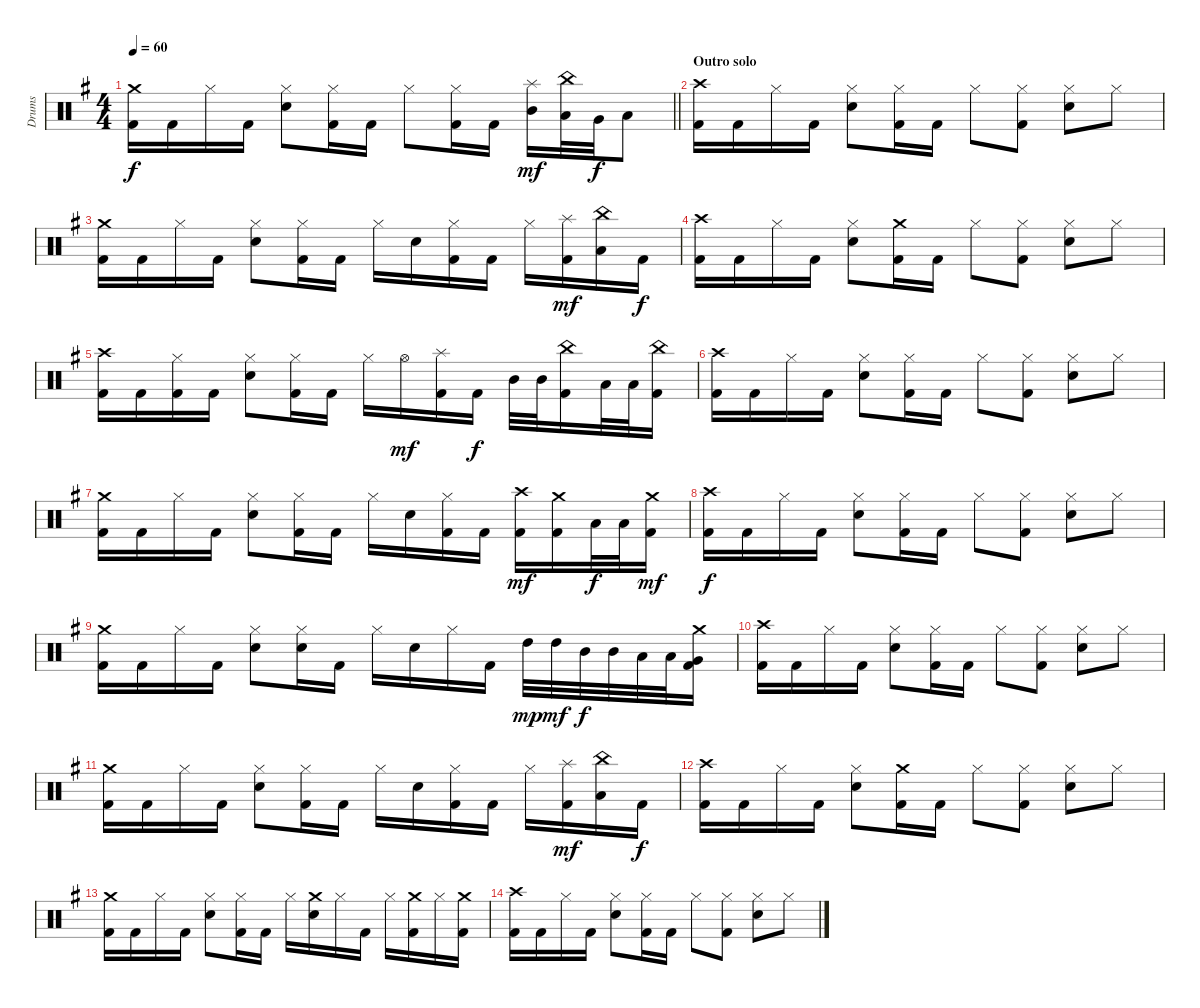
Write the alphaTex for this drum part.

\track ("Drums" "Drums") {instrument percussion}
\staff {score}
\articulation defaults
\ts (4 4)
\tempo 60
\clef neutral
\barLineRight lightlight
\ks eminor
("Crash medium (hit)" "Kick (hit) 2").16{dy f} "Kick (hit) 2".16 "Hi-Hat (closed)".16 "Kick (hit) 2".16 ("Hi-Hat (closed)" "Snare (hit) 2").8 ("Hi-Hat (closed)" "Kick (hit) 2").16 "Kick (hit) 2".16 "Hi-Hat (closed)".8 ("Hi-Hat (closed)" "Kick (hit) 2").16 "Kick (hit) 2".16 ("Splash (hit)" "Mid Tom (hit)").16{dy mf} ("China (hit)" "Low Tom (hit)").32 "Very Low Tom (hit)".32{dy f} "Low Floor Tom (hit)".8 |
\section ("" "Outro solo")
("Crash high (hit)" "Kick (hit) 2").16 "Kick (hit) 2".16 "Hi-Hat (closed)".16 "Kick (hit) 2".16 ("Hi-Hat (closed)" "Snare (hit) 2").8 ("Hi-Hat (closed)" "Kick (hit) 2").16 "Kick (hit) 2".16 "Hi-Hat (closed)".8 ("Hi-Hat (closed)" "Kick (hit) 2").8 ("Hi-Hat (closed)" "Snare (hit) 2").8 "Hi-Hat (closed)".8 |
("Crash medium (hit)" "Kick (hit) 2").16 "Kick (hit) 2".16 "Hi-Hat (closed)".16 "Kick (hit) 2".16 ("Hi-Hat (closed)" "Snare (hit) 2").8 ("Hi-Hat (closed)" "Kick (hit) 2").16 "Kick (hit) 2".16 "Hi-Hat (closed)".16 "Snare (hit) 2".16 ("Hi-Hat (closed)" "Kick (hit) 2").16 "Kick (hit) 2".16 "Hi-Hat (closed)".16 ("Splash (hit)" "Kick (hit) 2").16{dy mf} ("China (hit)" "Low Tom (hit)").16 "Kick (hit) 2".16{dy f} |
("Crash high (hit)" "Kick (hit) 2").16 "Kick (hit) 2".16 "Hi-Hat (closed)".16 "Kick (hit) 2".16 ("Hi-Hat (closed)" "Snare (hit) 2").8 ("Crash medium (hit)" "Kick (hit) 2").16 "Kick (hit) 2".16 "Hi-Hat (closed)".8 ("Hi-Hat (closed)" "Kick (hit) 2").8 ("Hi-Hat (closed)" "Snare (hit) 2").8 "Hi-Hat (closed)".8 |
("Crash high (hit)" "Kick (hit) 2").16 "Kick (hit) 2".16 ("Hi-Hat (closed)" "Kick (hit) 2").16 "Kick (hit) 2".16 ("Hi-Hat (closed)" "Snare (hit) 2").8 ("Hi-Hat (closed)" "Kick (hit) 2").16 "Kick (hit) 2".16 "Hi-Hat (closed)".16 "Hi-Hat (open)".16{dy mf} ("Splash (hit)" "Kick (hit) 2").16 "Kick (hit) 2".16{dy f} "Mid Tom (hit)".32 "Mid Tom (hit)".32 ("China (hit)" "Kick (hit) 2").16 "Low Tom (hit)".32 "Low Tom (hit)".32 ("China (hit)" "Kick (hit) 2").16 |
("Crash high (hit)" "Kick (hit) 2").16 "Kick (hit) 2".16 "Hi-Hat (closed)".16 "Kick (hit) 2".16 ("Hi-Hat (closed)" "Snare (hit) 2").8 ("Hi-Hat (closed)" "Kick (hit) 2").16 "Kick (hit) 2".16 "Hi-Hat (closed)".8 ("Hi-Hat (closed)" "Kick (hit) 2").8 ("Hi-Hat (closed)" "Snare (hit) 2").8 "Hi-Hat (closed)".8 |
("Crash medium (hit)" "Kick (hit) 2").16 "Kick (hit) 2".16 "Hi-Hat (closed)".16 "Kick (hit) 2".16 ("Hi-Hat (closed)" "Snare (hit) 2").8 ("Hi-Hat (closed)" "Kick (hit) 2").16 "Kick (hit) 2".16 "Hi-Hat (closed)".16 "Snare (hit) 2".16 ("Hi-Hat (closed)" "Kick (hit) 2").16 "Kick (hit) 2".16 ("Crash high (hit)" "Kick (hit) 2").16{dy mf} ("Crash medium (hit)" "Kick (hit) 2").16 "Low Tom (hit)".32{dy f} "Low Tom (hit)".32 ("Crash medium (hit)" "Kick (hit) 2").16{dy mf} |
("Crash high (hit)" "Kick (hit) 2").16{dy f} "Kick (hit) 2".16 "Hi-Hat (closed)".16 "Kick (hit) 2".16 ("Hi-Hat (closed)" "Snare (hit) 2").8 ("Hi-Hat (closed)" "Kick (hit) 2").16 "Kick (hit) 2".16 "Hi-Hat (closed)".8 ("Hi-Hat (closed)" "Kick (hit) 2").8 ("Hi-Hat (closed)" "Snare (hit) 2").8 "Hi-Hat (closed)".8 |
("Crash medium (hit)" "Kick (hit) 2").16 "Kick (hit) 2".16 "Hi-Hat (closed)".16 "Kick (hit) 2".16 ("Hi-Hat (closed)" "Snare (hit) 2").8 ("Hi-Hat (closed)" "Snare (hit) 2").16 "Kick (hit) 2".16 "Hi-Hat (closed)".16 "Snare (hit) 2".16 "Hi-Hat (closed)".16 "Kick (hit) 2".16 "High Tom (hit)".32{dy mp} "High Tom (hit)".32{dy mf} "Mid Tom (hit)".32{dy f} "Mid Tom (hit)".32 "Low Tom (hit)".32 "Low Tom (hit)".32 ("Crash medium (hit)" "Very Low Tom (hit)" "Kick (hit) 2").16 |
("Crash high (hit)" "Kick (hit) 2").16 "Kick (hit) 2".16 "Hi-Hat (closed)".16 "Kick (hit) 2".16 ("Hi-Hat (closed)" "Snare (hit) 2").8 ("Hi-Hat (closed)" "Kick (hit) 2").16 "Kick (hit) 2".16 "Hi-Hat (closed)".8 ("Hi-Hat (closed)" "Kick (hit) 2").8 ("Hi-Hat (closed)" "Snare (hit) 2").8 "Hi-Hat (closed)".8 |
("Crash medium (hit)" "Kick (hit) 2").16 "Kick (hit) 2".16 "Hi-Hat (closed)".16 "Kick (hit) 2".16 ("Hi-Hat (closed)" "Snare (hit) 2").8 ("Hi-Hat (closed)" "Kick (hit) 2").16 "Kick (hit) 2".16 "Hi-Hat (closed)".16 "Snare (hit) 2".16 ("Hi-Hat (closed)" "Kick (hit) 2").16 "Kick (hit) 2".16 "Hi-Hat (closed)".16 ("Splash (hit)" "Kick (hit) 2").16{dy mf} ("China (hit)" "Low Tom (hit)").16 "Kick (hit) 2".16{dy f} |
("Crash high (hit)" "Kick (hit) 2").16 "Kick (hit) 2".16 "Hi-Hat (closed)".16 "Kick (hit) 2".16 ("Hi-Hat (closed)" "Snare (hit) 2").8 ("Crash medium (hit)" "Kick (hit) 2").16 "Kick (hit) 2".16 "Hi-Hat (closed)".8 ("Hi-Hat (closed)" "Kick (hit) 2").8 ("Hi-Hat (closed)" "Snare (hit) 2").8 "Hi-Hat (closed)".8 |
("Crash medium (hit)" "Kick (hit) 2").16 "Kick (hit) 2".16 "Hi-Hat (closed)".16 "Kick (hit) 2".16 ("Hi-Hat (closed)" "Snare (hit) 2").8 ("Hi-Hat (closed)" "Kick (hit) 2").16 "Kick (hit) 2".16 "Hi-Hat (closed)".16 ("Crash medium (hit)" "Snare (hit) 2").16 "Hi-Hat (closed)".16 "Kick (hit) 2".16 "Hi-Hat (closed)".16 ("Crash medium (hit)" "Kick (hit) 2").16 "Hi-Hat (closed)".16 ("Crash medium (hit)" "Kick (hit) 2").16 |
("Crash high (hit)" "Kick (hit) 2").16 "Kick (hit) 2".16 "Hi-Hat (closed)".16 "Kick (hit) 2".16 ("Hi-Hat (closed)" "Snare (hit) 2").8 ("Hi-Hat (closed)" "Kick (hit) 2").16 "Kick (hit) 2".16 "Hi-Hat (closed)".8 ("Hi-Hat (closed)" "Kick (hit) 2").8 ("Hi-Hat (closed)" "Snare (hit) 2").8 "Hi-Hat (closed)".8
